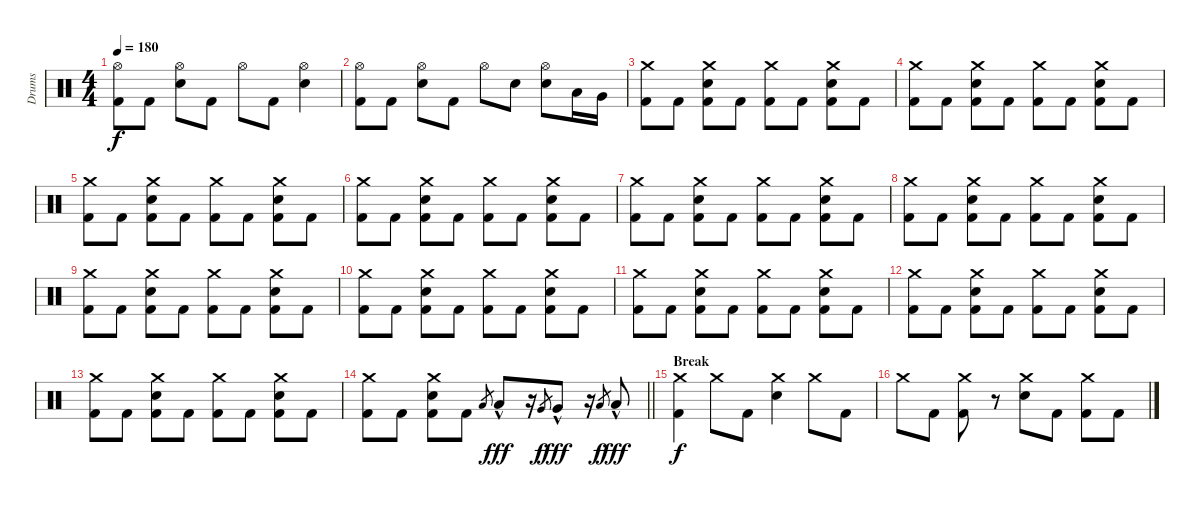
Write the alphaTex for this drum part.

\track ("Drums" "Drums") {instrument percussion}
\staff {score}
\articulation defaults
\ts (4 4)
\tempo 180
\clef neutral
\ks c
("Hi-Hat (open)" "Kick (hit) 2").8{dy f} "Kick (hit) 2".8 ("Hi-Hat (open)" "Snare (hit) 2").8 "Kick (hit) 2".8 "Hi-Hat (open)".8 "Kick (hit) 2".8 ("Hi-Hat (open)" "Snare (hit) 2").4 |
("Hi-Hat (open)" "Kick (hit) 2").8 "Kick (hit) 2".8 ("Hi-Hat (open)" "Snare (hit) 2").8 "Kick (hit) 2".8 "Hi-Hat (open)".8 "Snare (hit) 2".8 ("Hi-Hat (open)" "Snare (hit) 2").8 "Low Tom (hit)".16 "Very Low Tom (hit)".16 |
("Crash medium (hit)" "Kick (hit) 2").8 "Kick (hit) 2".8 ("Crash medium (hit)" "Snare (hit) 2" "Kick (hit) 2").8 "Kick (hit) 2".8 ("Crash medium (hit)" "Kick (hit) 2").8 "Kick (hit) 2".8 ("Crash medium (hit)" "Snare (hit) 2" "Kick (hit) 2").8 "Kick (hit) 2".8 |
("Crash medium (hit)" "Kick (hit) 2").8 "Kick (hit) 2".8 ("Crash medium (hit)" "Snare (hit) 2" "Kick (hit) 2").8 "Kick (hit) 2".8 ("Crash medium (hit)" "Kick (hit) 2").8 "Kick (hit) 2".8 ("Crash medium (hit)" "Snare (hit) 2" "Kick (hit) 2").8 "Kick (hit) 2".8 |
("Crash medium (hit)" "Kick (hit) 2").8 "Kick (hit) 2".8 ("Crash medium (hit)" "Snare (hit) 2" "Kick (hit) 2").8 "Kick (hit) 2".8 ("Crash medium (hit)" "Kick (hit) 2").8 "Kick (hit) 2".8 ("Crash medium (hit)" "Snare (hit) 2" "Kick (hit) 2").8 "Kick (hit) 2".8 |
("Crash medium (hit)" "Kick (hit) 2").8 "Kick (hit) 2".8 ("Crash medium (hit)" "Snare (hit) 2" "Kick (hit) 2").8 "Kick (hit) 2".8 ("Crash medium (hit)" "Kick (hit) 2").8 "Kick (hit) 2".8 ("Crash medium (hit)" "Snare (hit) 2" "Kick (hit) 2").8 "Kick (hit) 2".8 |
("Crash medium (hit)" "Kick (hit) 2").8 "Kick (hit) 2".8 ("Crash medium (hit)" "Snare (hit) 2" "Kick (hit) 2").8 "Kick (hit) 2".8 ("Crash medium (hit)" "Kick (hit) 2").8 "Kick (hit) 2".8 ("Crash medium (hit)" "Snare (hit) 2" "Kick (hit) 2").8 "Kick (hit) 2".8 |
("Crash medium (hit)" "Kick (hit) 2").8 "Kick (hit) 2".8 ("Crash medium (hit)" "Snare (hit) 2" "Kick (hit) 2").8 "Kick (hit) 2".8 ("Crash medium (hit)" "Kick (hit) 2").8 "Kick (hit) 2".8 ("Crash medium (hit)" "Snare (hit) 2" "Kick (hit) 2").8 "Kick (hit) 2".8 |
("Crash medium (hit)" "Kick (hit) 2").8 "Kick (hit) 2".8 ("Crash medium (hit)" "Snare (hit) 2" "Kick (hit) 2").8 "Kick (hit) 2".8 ("Crash medium (hit)" "Kick (hit) 2").8 "Kick (hit) 2".8 ("Crash medium (hit)" "Snare (hit) 2" "Kick (hit) 2").8 "Kick (hit) 2".8 |
("Crash medium (hit)" "Kick (hit) 2").8 "Kick (hit) 2".8 ("Crash medium (hit)" "Snare (hit) 2" "Kick (hit) 2").8 "Kick (hit) 2".8 ("Crash medium (hit)" "Kick (hit) 2").8 "Kick (hit) 2".8 ("Crash medium (hit)" "Snare (hit) 2" "Kick (hit) 2").8 "Kick (hit) 2".8 |
("Crash medium (hit)" "Kick (hit) 2").8 "Kick (hit) 2".8 ("Crash medium (hit)" "Snare (hit) 2" "Kick (hit) 2").8 "Kick (hit) 2".8 ("Crash medium (hit)" "Kick (hit) 2").8 "Kick (hit) 2".8 ("Crash medium (hit)" "Snare (hit) 2" "Kick (hit) 2").8 "Kick (hit) 2".8 |
("Crash medium (hit)" "Kick (hit) 2").8 "Kick (hit) 2".8 ("Crash medium (hit)" "Snare (hit) 2" "Kick (hit) 2").8 "Kick (hit) 2".8 ("Crash medium (hit)" "Kick (hit) 2").8 "Kick (hit) 2".8 ("Crash medium (hit)" "Snare (hit) 2" "Kick (hit) 2").8 "Kick (hit) 2".8 |
("Crash medium (hit)" "Kick (hit) 2").8 "Kick (hit) 2".8 ("Crash medium (hit)" "Snare (hit) 2" "Kick (hit) 2").8 "Kick (hit) 2".8 ("Crash medium (hit)" "Kick (hit) 2").8 "Kick (hit) 2".8 ("Crash medium (hit)" "Snare (hit) 2" "Kick (hit) 2").8 "Kick (hit) 2".8 |
\barLineRight lightlight
("Crash medium (hit)" "Kick (hit) 2").8 "Kick (hit) 2".8 ("Crash medium (hit)" "Snare (hit) 2" "Kick (hit) 2").8 "Kick (hit) 2".8 "Low Tom (hit)".8{gr} "Low Tom (hit)"{hac}.8{dy fff} r.16 "Very Low Tom (hit)".8{gr dy f} "Very Low Tom (hit)"{hac}.8{dy fff} r.16 "Low Floor Tom (hit)".8{gr dy f} "Low Floor Tom (hit)"{hac}.8{dy fff} |
\section ("" "Break")
("Crash medium (hit)" "Kick (hit) 2").4{dy f} "Crash medium (hit)".8 "Kick (hit) 2".8 ("Crash medium (hit)" "Snare (hit) 2").4 "Crash medium (hit)".8 "Kick (hit) 2".8 |
"Crash medium (hit)".8 "Kick (hit) 2".8 ("Crash medium (hit)" "Kick (hit) 2").8 r.8 ("Crash medium (hit)" "Snare (hit) 2").8 "Kick (hit) 2".8 ("Crash medium (hit)" "Kick (hit) 2").8 "Kick (hit) 2".8
